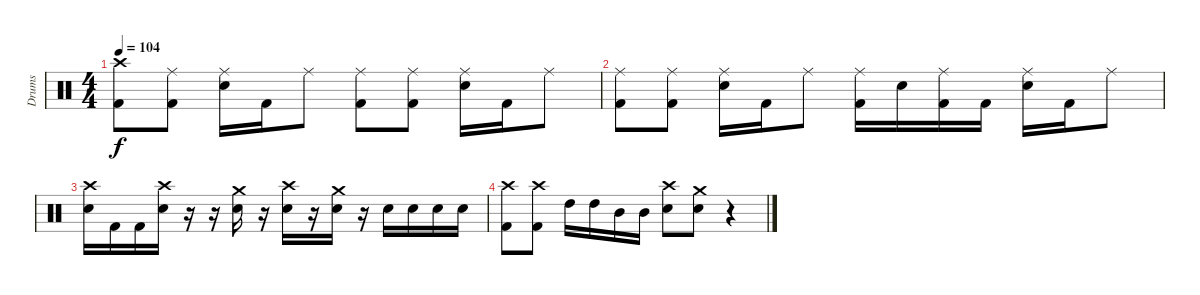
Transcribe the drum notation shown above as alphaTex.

\track ("Drums" "Drums") {instrument percussion}
\staff {score}
\articulation defaults
\ts (4 4)
\tempo 104
\clef neutral
\ks c
("Crash high (hit)" "Kick (hit) 2").8{dy f} ("Ride (middle)" "Kick (hit) 2").8 ("Ride (middle)" "Electric Snare (hit)").16 "Kick (hit) 2".16 "Ride (middle)".8 ("Ride (middle)" "Kick (hit) 2").8 ("Ride (middle)" "Kick (hit) 2").8 ("Ride (middle)" "Electric Snare (hit)").16 "Kick (hit) 2".16 "Ride (middle)".8 |
("Ride (middle)" "Kick (hit) 2").8 ("Ride (middle)" "Kick (hit) 2").8 ("Ride (middle)" "Electric Snare (hit)").16 "Kick (hit) 2".16 "Ride (middle)".8 ("Ride (middle)" "Kick (hit) 2").16 "Electric Snare (hit)".16 ("Ride (middle)" "Kick (hit) 2").16 "Kick (hit) 2".16 ("Ride (middle)" "Electric Snare (hit)").16 "Kick (hit) 2".16 "Ride (middle)".8 |
("Crash high (hit)" "Electric Snare (hit)").16 "Kick (hit) 2".16 "Kick (hit) 2".16 ("Crash high (hit)" "Electric Snare (hit)").16 r.16 r.16 ("Crash medium (hit)" "Electric Snare (hit)").16 r.16 ("Crash high (hit)" "Electric Snare (hit)").16 r.16 ("Crash medium (hit)" "Electric Snare (hit)").16 r.16 "Electric Snare (hit)".16 "Electric Snare (hit)".16 "Electric Snare (hit)".16 "Electric Snare (hit)".16 |
("Crash high (hit)" "Kick (hit) 2").8 ("Crash high (hit)" "Kick (hit) 2").8 "High Tom (hit)".16 "High Tom (hit)".16 "Mid Tom (hit)".16 "Mid Tom (hit)".16 ("Crash high (hit)" "Electric Snare (hit)").8 ("Crash medium (hit)" "Electric Snare (hit)").8 r.4
